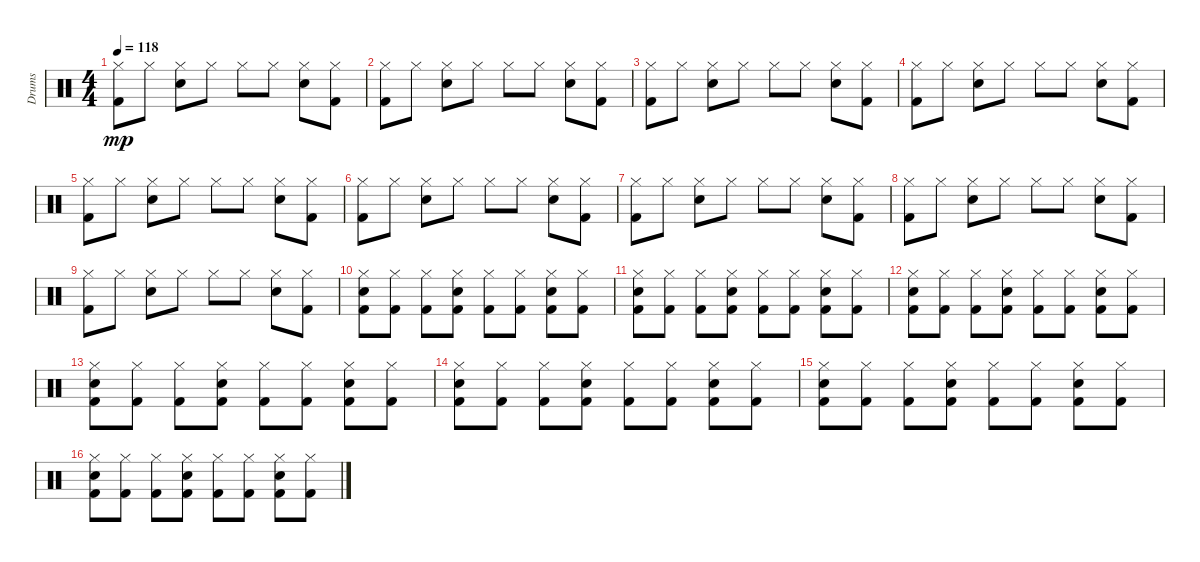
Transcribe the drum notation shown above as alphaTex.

\track ("Drums" "Drums") {instrument percussion}
\staff {score}
\articulation defaults
\ts (4 4)
\tempo 118
\clef neutral
\ks c
("Hi-Hat (closed)" "Kick (hit) 2").8{dy mp} "Hi-Hat (closed)".8 ("Hi-Hat (closed)" "Snare (hit) 2").8 "Hi-Hat (closed)".8 "Hi-Hat (closed)".8 "Hi-Hat (closed)".8 ("Hi-Hat (closed)" "Snare (hit) 2").8 ("Hi-Hat (closed)" "Kick (hit) 2").8 |
("Hi-Hat (closed)" "Kick (hit) 2").8 "Hi-Hat (closed)".8 ("Hi-Hat (closed)" "Snare (hit) 2").8 "Hi-Hat (closed)".8 "Hi-Hat (closed)".8 "Hi-Hat (closed)".8 ("Hi-Hat (closed)" "Snare (hit) 2").8 ("Hi-Hat (closed)" "Kick (hit) 2").8 |
("Hi-Hat (closed)" "Kick (hit) 2").8 "Hi-Hat (closed)".8 ("Hi-Hat (closed)" "Snare (hit) 2").8 "Hi-Hat (closed)".8 "Hi-Hat (closed)".8 "Hi-Hat (closed)".8 ("Hi-Hat (closed)" "Snare (hit) 2").8 ("Hi-Hat (closed)" "Kick (hit) 2").8 |
("Hi-Hat (closed)" "Kick (hit) 2").8 "Hi-Hat (closed)".8 ("Hi-Hat (closed)" "Snare (hit) 2").8 "Hi-Hat (closed)".8 "Hi-Hat (closed)".8 "Hi-Hat (closed)".8 ("Hi-Hat (closed)" "Snare (hit) 2").8 ("Hi-Hat (closed)" "Kick (hit) 2").8 |
("Hi-Hat (closed)" "Kick (hit) 2").8 "Hi-Hat (closed)".8 ("Hi-Hat (closed)" "Snare (hit) 2").8 "Hi-Hat (closed)".8 "Hi-Hat (closed)".8 "Hi-Hat (closed)".8 ("Hi-Hat (closed)" "Snare (hit) 2").8 ("Hi-Hat (closed)" "Kick (hit) 2").8 |
("Hi-Hat (closed)" "Kick (hit) 2").8 "Hi-Hat (closed)".8 ("Hi-Hat (closed)" "Snare (hit) 2").8 "Hi-Hat (closed)".8 "Hi-Hat (closed)".8 "Hi-Hat (closed)".8 ("Hi-Hat (closed)" "Snare (hit) 2").8 ("Hi-Hat (closed)" "Kick (hit) 2").8 |
("Hi-Hat (closed)" "Kick (hit) 2").8 "Hi-Hat (closed)".8 ("Hi-Hat (closed)" "Snare (hit) 2").8 "Hi-Hat (closed)".8 "Hi-Hat (closed)".8 "Hi-Hat (closed)".8 ("Hi-Hat (closed)" "Snare (hit) 2").8 ("Hi-Hat (closed)" "Kick (hit) 2").8 |
("Hi-Hat (closed)" "Kick (hit) 2").8 "Hi-Hat (closed)".8 ("Hi-Hat (closed)" "Snare (hit) 2").8 "Hi-Hat (closed)".8 "Hi-Hat (closed)".8 "Hi-Hat (closed)".8 ("Hi-Hat (closed)" "Snare (hit) 2").8 ("Hi-Hat (closed)" "Kick (hit) 2").8 |
("Hi-Hat (closed)" "Kick (hit) 2").8 "Hi-Hat (closed)".8 ("Hi-Hat (closed)" "Snare (hit) 2").8 "Hi-Hat (closed)".8 "Hi-Hat (closed)".8 "Hi-Hat (closed)".8 ("Hi-Hat (closed)" "Snare (hit) 2").8 ("Hi-Hat (closed)" "Kick (hit) 2").8 |
("Hi-Hat (closed)" "Snare (hit) 2" "Kick (hit) 2").8 ("Hi-Hat (closed)" "Kick (hit) 2").8 ("Hi-Hat (closed)" "Kick (hit) 2").8 ("Hi-Hat (closed)" "Snare (hit) 2" "Kick (hit) 2").8 ("Hi-Hat (closed)" "Kick (hit) 2").8 ("Hi-Hat (closed)" "Kick (hit) 2").8 ("Hi-Hat (closed)" "Kick (hit) 2" "Snare (hit) 2").8 ("Hi-Hat (closed)" "Kick (hit) 2").8 |
("Hi-Hat (closed)" "Kick (hit) 2" "Snare (hit) 2").8 ("Hi-Hat (closed)" "Kick (hit) 2").8 ("Hi-Hat (closed)" "Kick (hit) 2").8 ("Hi-Hat (closed)" "Kick (hit) 2" "Snare (hit) 2").8 ("Hi-Hat (closed)" "Kick (hit) 2").8 ("Hi-Hat (closed)" "Kick (hit) 2").8 ("Hi-Hat (closed)" "Kick (hit) 2" "Snare (hit) 2").8 ("Hi-Hat (closed)" "Kick (hit) 2").8 |
("Hi-Hat (closed)" "Snare (hit) 2" "Kick (hit) 2").8 ("Hi-Hat (closed)" "Kick (hit) 2").8 ("Hi-Hat (closed)" "Kick (hit) 2").8 ("Hi-Hat (closed)" "Kick (hit) 2" "Snare (hit) 2").8 ("Hi-Hat (closed)" "Kick (hit) 2").8 ("Hi-Hat (closed)" "Kick (hit) 2").8 ("Hi-Hat (closed)" "Snare (hit) 2" "Kick (hit) 2").8 ("Hi-Hat (closed)" "Kick (hit) 2").8 |
("Hi-Hat (closed)" "Snare (hit) 2" "Kick (hit) 2").8 ("Hi-Hat (closed)" "Kick (hit) 2").8 ("Hi-Hat (closed)" "Kick (hit) 2").8 ("Hi-Hat (closed)" "Kick (hit) 2" "Snare (hit) 2").8 ("Hi-Hat (closed)" "Kick (hit) 2").8 ("Hi-Hat (closed)" "Kick (hit) 2").8 ("Hi-Hat (closed)" "Snare (hit) 2" "Kick (hit) 2").8 ("Hi-Hat (closed)" "Kick (hit) 2").8 |
("Hi-Hat (closed)" "Kick (hit) 2" "Snare (hit) 2").8 ("Hi-Hat (closed)" "Kick (hit) 2").8 ("Hi-Hat (closed)" "Kick (hit) 2").8 ("Hi-Hat (closed)" "Snare (hit) 2" "Kick (hit) 2").8 ("Hi-Hat (closed)" "Kick (hit) 2").8 ("Hi-Hat (closed)" "Kick (hit) 2").8 ("Hi-Hat (closed)" "Kick (hit) 2" "Snare (hit) 2").8 ("Hi-Hat (closed)" "Kick (hit) 2").8 |
("Hi-Hat (closed)" "Kick (hit) 2" "Snare (hit) 2").8 ("Hi-Hat (closed)" "Kick (hit) 2").8 ("Hi-Hat (closed)" "Kick (hit) 2").8 ("Hi-Hat (closed)" "Snare (hit) 2" "Kick (hit) 2").8 ("Hi-Hat (closed)" "Kick (hit) 2").8 ("Hi-Hat (closed)" "Kick (hit) 2").8 ("Hi-Hat (closed)" "Snare (hit) 2" "Kick (hit) 2").8 ("Hi-Hat (closed)" "Kick (hit) 2").8 |
("Hi-Hat (closed)" "Snare (hit) 2" "Kick (hit) 2").8 ("Hi-Hat (closed)" "Kick (hit) 2").8 ("Hi-Hat (closed)" "Kick (hit) 2").8 ("Hi-Hat (closed)" "Kick (hit) 2" "Snare (hit) 2").8 ("Hi-Hat (closed)" "Kick (hit) 2").8 ("Hi-Hat (closed)" "Kick (hit) 2").8 ("Hi-Hat (closed)" "Kick (hit) 2" "Snare (hit) 2").8 ("Hi-Hat (closed)" "Kick (hit) 2").8
